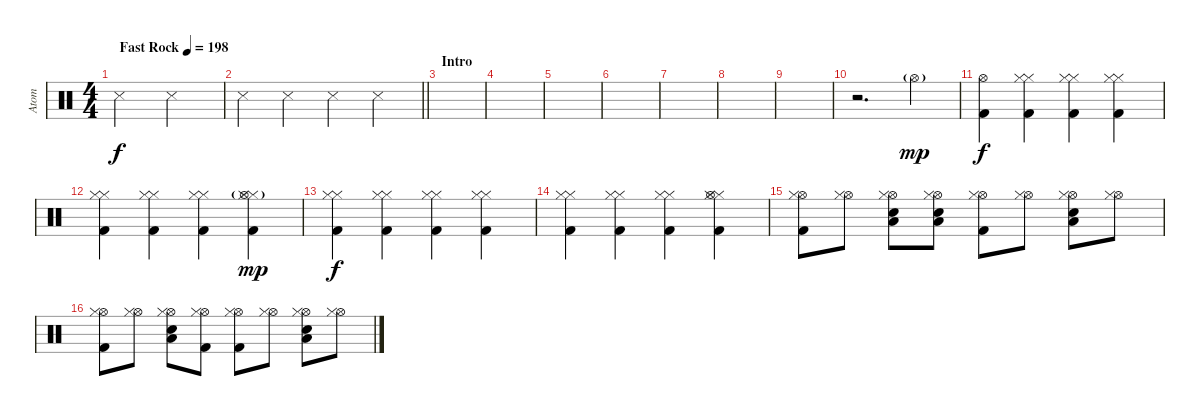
\track ("Atom" "Atom") {instrument percussion}
\staff
\articulation defaults
\ts (4 4)
\tempo (198 "Fast Rock")
\clef neutral
\ks c "Snare (side stick) 3".2{dy f} "Snare (side stick) 3".2
|
\barLineRight lightlight "Snare (side stick) 3".4 "Snare (side stick) 3".4 "Snare (side stick) 3".4 "Snare (side stick) 3".4
|
\section ("" "Intro")
|
|
|
|
|
|
|
r.2{d} "Hi-Hat (open)"{g}.4{dy mp} |
("Hi-Hat (open)" "Kick (hit) 2").4{dy f} ("Hi-Hat (closed)" "Hi-Hat (closed)" "Kick (hit) 2").4 ("Hi-Hat (closed)" "Hi-Hat (closed)" "Kick (hit) 2").4 ("Hi-Hat (closed)" "Hi-Hat (closed)" "Kick (hit) 2").4 |
("Hi-Hat (closed)" "Hi-Hat (closed)" "Kick (hit) 2").4 ("Hi-Hat (closed)" "Hi-Hat (closed)" "Kick (hit) 2").4 ("Hi-Hat (closed)" "Hi-Hat (closed)" "Kick (hit) 2").4 ("Hi-Hat (closed)" "Hi-Hat (closed)" "Kick (hit) 2" "Hi-Hat (open)"{g}).4{dy mp} |
("Hi-Hat (closed)" "Hi-Hat (closed)" "Kick (hit) 2").4{dy f} ("Hi-Hat (closed)" "Hi-Hat (closed)" "Kick (hit) 2").4 ("Hi-Hat (closed)" "Hi-Hat (closed)" "Kick (hit) 2").4 ("Hi-Hat (closed)" "Hi-Hat (closed)" "Kick (hit) 2").4 |
("Hi-Hat (closed)" "Hi-Hat (closed)" "Kick (hit) 2").4 ("Hi-Hat (closed)" "Hi-Hat (closed)" "Kick (hit) 2").4 ("Hi-Hat (closed)" "Hi-Hat (closed)" "Kick (hit) 2").4 ("Hi-Hat (closed)" "Hi-Hat (closed)" "Kick (hit) 2" "Hi-Hat (open)").4 |
("Hi-Hat (open)" "Kick (hit) 2" "Hi-Hat (closed)").8 ("Hi-Hat (open)" "Hi-Hat (closed)").8 ("Hi-Hat (open)" "Snare (hit) 2" "Low Floor Tom (hit)" "Hi-Hat (closed)").8 ("Hi-Hat (open)" "Snare (hit) 2" "Low Floor Tom (hit)" "Hi-Hat (closed)").8 ("Hi-Hat (open)" "Kick (hit) 2" "Hi-Hat (closed)").8 ("Hi-Hat (open)" "Hi-Hat (closed)").8 ("Hi-Hat (open)" "Snare (hit) 2" "Low Floor Tom (hit)" "Hi-Hat (closed)").8 ("Hi-Hat (open)" "Hi-Hat (closed)").8 |
("Hi-Hat (open)" "Kick (hit) 2" "Hi-Hat (closed)").8 ("Hi-Hat (open)" "Hi-Hat (closed)").8 ("Hi-Hat (open)" "Snare (hit) 2" "Low Floor Tom (hit)" "Hi-Hat (closed)").8 ("Hi-Hat (open)" "Kick (hit) 2" "Hi-Hat (closed)").8 ("Hi-Hat (open)" "Kick (hit) 2" "Hi-Hat (closed)").8 ("Hi-Hat (open)" "Hi-Hat (closed)").8 ("Hi-Hat (open)" "Snare (hit) 2" "Low Floor Tom (hit)" "Hi-Hat (closed)").8 ("Hi-Hat (open)" "Hi-Hat (closed)").8
